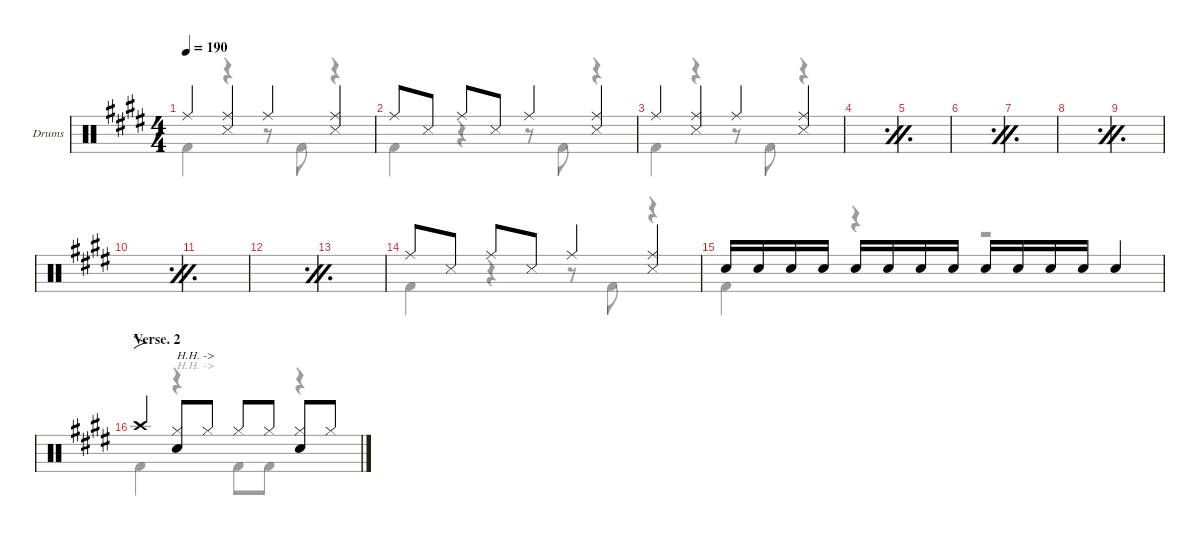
\defaultSystemsLayout 4
\hideDynamics
\bracketExtendMode nobrackets
\firstSystemTrackNameOrientation horizontal
\track ("Drums" "Drums") {defaultSystemsLayout 4 instrument percussion}
\staff {score}
\articulation defaults
\voice
\ts (4 4)
\tempo 190
\clef neutral
\scale
0.244461
\ks e "Ride (middle)"{acc forcenatural}.4{dy mp beam Up}
("Ride (middle)"{acc forcenatural} "Snare (side stick) 3"{acc forcenatural}).4{beam Up} "Ride (middle)"{acc forcenatural}.4{beam Up} ("Snare (side stick) 3"{acc forcenatural} "Ride (middle)"{acc forcenatural}).4{dy mf beam Up} |
\scale
0.24446 "Ride (middle)"{acc forcenatural}.8{dy mp beam Up} "Snare (side stick) 3"{acc forcenatural}.8{dy mf beam Up} "Ride (middle)"{acc forcenatural}.8{dy mp beam Up} "Snare (side stick) 3"{acc forcenatural}.8{dy mf beam Up} "Ride (middle)"{acc forcenatural}.4{dy mp beam Up} ("Snare (side stick) 3"{acc forcenatural} "Ride (middle)"{acc forcenatural}).4{dy mf beam Up} |
\scale
0.244461 "Ride (middle)"{acc forcenatural}.4{dy mp beam Up} ("Ride (middle)"{acc forcenatural} "Snare (side stick) 3"{acc forcenatural}).4{beam Up} "Ride (middle)"{acc forcenatural}.4{beam Up} ("Snare (side stick) 3"{acc forcenatural} "Ride (middle)"{acc forcenatural}).4{dy mf beam Up} |
\simile firstofdouble
\scale
0.266618 |
\simile secondofdouble
\scale
0.244461 |
\simile firstofdouble
\scale
0.24446 |
\simile secondofdouble
\scale
0.244461 |
\simile firstofdouble
\scale
0.266618 |
\simile secondofdouble
\scale
0.244461 |
\simile firstofdouble
\scale
0.24446 |
\simile secondofdouble
\scale
0.244461 |
\simile firstofdouble
\scale
0.266618 |
\simile secondofdouble
\scale
0.24446 |
\simile none
\scale
0.24446 "Ride (middle)"{acc forcenatural}.8{dy mp beam Up} "Snare (side stick) 3"{acc forcenatural}.8{dy mf beam Up} "Ride (middle)"{acc forcenatural}.8{dy mp beam Up} "Snare (side stick) 3"{acc forcenatural}.8{dy mf beam Up} "Ride (middle)"{acc forcenatural}.4{dy mp beam Up} ("Snare (side stick) 3"{acc forcenatural} "Ride (middle)"{acc forcenatural}).4{dy mf beam Up} |
\scale
0.244461 "Snare (hit) 2"{acc forcenatural}.16{dy f beam Up} "Snare (hit) 2"{acc forcenatural}.16{dy mp beam Up} "Snare (hit) 2"{acc forcenatural}.16{dy mf beam Up} "Snare (hit) 2"{acc forcenatural}.16{dy mp beam Up beam split} "Snare (hit) 2"{acc forcenatural}.16{dy f beam Up} "Snare (hit) 2"{acc forcenatural}.16{dy mp beam Up} "Snare (hit) 2"{acc forcenatural}.16{dy mf beam Up} "Snare (hit) 2"{acc forcenatural}.16{dy mp beam Up beam split} "Snare (hit) 2"{acc forcenatural}.16{dy f beam Up} "Snare (hit) 2"{acc forcenatural}.16{dy mp beam Up} "Snare (hit) 2"{acc forcenatural}.16{dy mf beam Up} "Snare (hit) 2"{acc forcenatural}.16{dy mp beam Up beam split} "Snare (hit) 2"{acc forcenatural}.4{dy f beam Up} |
\section ("" "Verse. 2")
\scale
0.266618 "Crash high (hit)"{acc forcenatural}.4{fo beam Up} ("Hi-Hat (closed)"{acc forcenatural} "Snare (hit) 2"{acc forcenatural}).8{txt "H.H. ->" beam Up} "Hi-Hat (closed)"{acc forcenatural}.8{dy mf beam Up} "Hi-Hat (closed)"{acc forcenatural}.8{dy f beam Up} "Hi-Hat (closed)"{acc forcenatural}.8{dy mf beam Up} ("Hi-Hat (closed)"{acc forcenatural} "Snare (hit) 2"{acc forcenatural}).8{dy f beam Up} "Hi-Hat (closed)"{acc forcenatural}.8{dy mf beam Up}
\voice
\clef neutral
\ottava regular
\simile none
\scale
0.244461
\ks e "Kick (hit) 2"{acc forcenatural}.4{dy mf beam Down}
r.4{beam Down} r.8{beam Down} "Kick (hit) 2"{acc forcenatural}.8{beam Down} r.4{beam Down} |
\scale
0.24446 "Kick (hit) 2"{acc forcenatural}.4{beam Down} r.4{beam Down} r.8{beam Down} "Kick (hit) 2"{acc forcenatural}.8{beam Down} r.4{beam Down} |
\scale
0.244461 "Kick (hit) 2"{acc forcenatural}.4{beam Down} r.4{beam Down} r.8{beam Down} "Kick (hit) 2"{acc forcenatural}.8{beam Down} r.4{beam Down} |
\simile firstofdouble
\scale
0.266618 |
\simile secondofdouble
\scale
0.244461 |
\simile firstofdouble
\scale
0.24446 |
\simile secondofdouble
\scale
0.244461 |
\simile firstofdouble
\scale
0.266618 |
\simile secondofdouble
\scale
0.244461 |
\simile firstofdouble
\scale
0.24446 |
\simile secondofdouble
\scale
0.244461 |
\simile firstofdouble
\scale
0.266618 |
\simile secondofdouble
\scale
0.24446 |
\simile none
\scale
0.24446 "Kick (hit) 2"{acc forcenatural}.4{beam Down} r.4{beam Down} r.8{beam Down} "Kick (hit) 2"{acc forcenatural}.8{beam Down} r.4{beam Down} |
\scale
0.244461 "Kick (hit) 2"{acc forcenatural}.4{dy f beam Down} r.4{beam Down} r.2{beam Down} |
\scale
0.266618 "Kick (hit) 2"{acc forcenatural}.4{beam Down} r.4{txt "H.H. ->" beam Down} "Kick (hit) 2"{acc forcenatural}.8{beam Down} "Kick (hit) 2"{acc forcenatural}.8{beam Down} r.4{beam Down}
